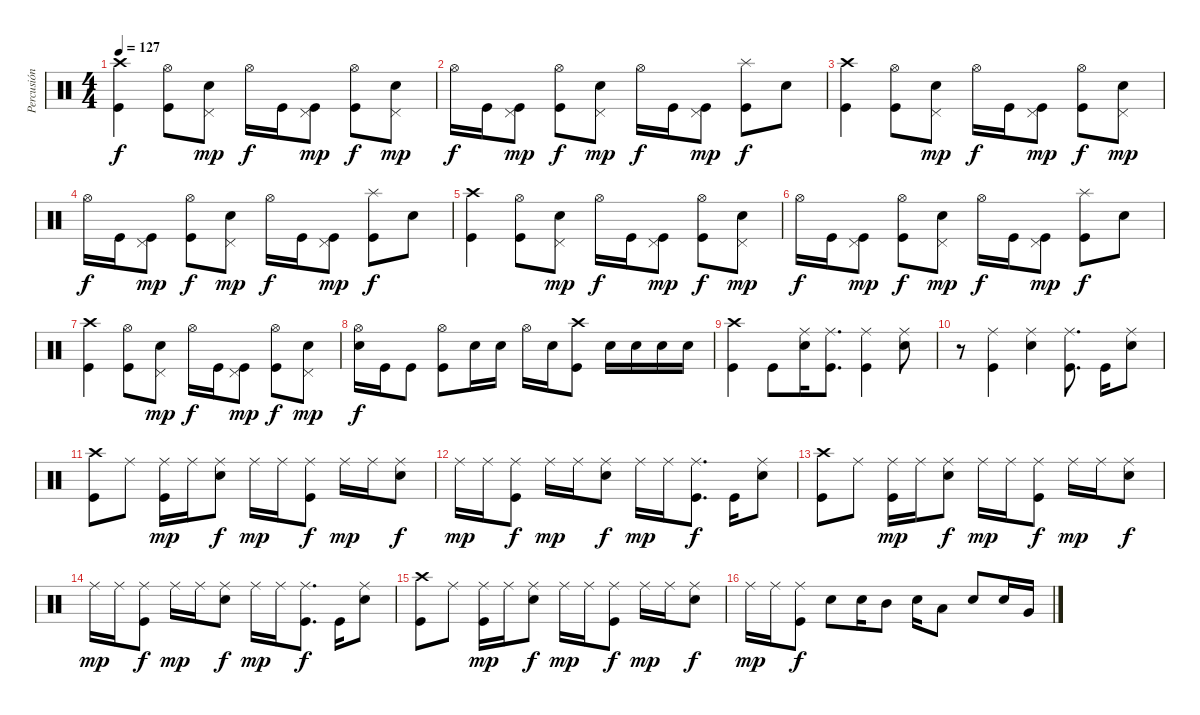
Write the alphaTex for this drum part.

\track ("Percusión" "Percusión") {instrument percussion}
\staff {score}
\articulation defaults
\ts (4 4)
\tempo 127
\clef neutral
\ks c
("Kick (hit)" "Crash high (hit)").4{dy f} ("Kick (hit)" "Hi-Hat (open)").8 ("Snare (hit) 2" "Pedal Hi-Hat (hit)").8{dy mp} "Hi-Hat (open)".16{dy f} "Kick (hit)".16 ("Kick (hit)" "Pedal Hi-Hat (hit)").8{dy mp} ("Kick (hit)" "Hi-Hat (open)").8{dy f} ("Snare (hit) 2" "Pedal Hi-Hat (hit)").8{dy mp} |
"Hi-Hat (open)".16{dy f} "Kick (hit)".16 ("Kick (hit)" "Pedal Hi-Hat (hit)").8{dy mp} ("Kick (hit)" "Hi-Hat (open)").8{dy f} ("Snare (hit) 2" "Pedal Hi-Hat (hit)").8{dy mp} "Hi-Hat (open)".16{dy f} "Kick (hit)".16 ("Kick (hit)" "Pedal Hi-Hat (hit)").8{dy mp} ("Kick (hit)" "Splash (hit)").8{dy f} "Snare (hit) 2".8 |
("Kick (hit)" "Crash high (hit)").4 ("Kick (hit)" "Hi-Hat (open)").8 ("Snare (hit) 2" "Pedal Hi-Hat (hit)").8{dy mp} "Hi-Hat (open)".16{dy f} "Kick (hit)".16 ("Kick (hit)" "Pedal Hi-Hat (hit)").8{dy mp} ("Kick (hit)" "Hi-Hat (open)").8{dy f} ("Snare (hit) 2" "Pedal Hi-Hat (hit)").8{dy mp} |
"Hi-Hat (open)".16{dy f} "Kick (hit)".16 ("Kick (hit)" "Pedal Hi-Hat (hit)").8{dy mp} ("Kick (hit)" "Hi-Hat (open)").8{dy f} ("Snare (hit) 2" "Pedal Hi-Hat (hit)").8{dy mp} "Hi-Hat (open)".16{dy f} "Kick (hit)".16 ("Kick (hit)" "Pedal Hi-Hat (hit)").8{dy mp} ("Kick (hit)" "Splash (hit)").8{dy f} "Snare (hit) 2".8 |
("Kick (hit)" "Crash high (hit)").4 ("Kick (hit)" "Hi-Hat (open)").8 ("Snare (hit) 2" "Pedal Hi-Hat (hit)").8{dy mp} "Hi-Hat (open)".16{dy f} "Kick (hit)".16 ("Kick (hit)" "Pedal Hi-Hat (hit)").8{dy mp} ("Kick (hit)" "Hi-Hat (open)").8{dy f} ("Snare (hit) 2" "Pedal Hi-Hat (hit)").8{dy mp} |
"Hi-Hat (open)".16{dy f} "Kick (hit)".16 ("Kick (hit)" "Pedal Hi-Hat (hit)").8{dy mp} ("Kick (hit)" "Hi-Hat (open)").8{dy f} ("Snare (hit) 2" "Pedal Hi-Hat (hit)").8{dy mp} "Hi-Hat (open)".16{dy f} "Kick (hit)".16 ("Kick (hit)" "Pedal Hi-Hat (hit)").8{dy mp} ("Kick (hit)" "Splash (hit)").8{dy f} "Snare (hit) 2".8 |
("Kick (hit)" "Crash high (hit)").4 ("Kick (hit)" "Hi-Hat (open)").8 ("Snare (hit) 2" "Pedal Hi-Hat (hit)").8{dy mp} "Hi-Hat (open)".16{dy f} "Kick (hit)".16 ("Kick (hit)" "Pedal Hi-Hat (hit)").8{dy mp} ("Kick (hit)" "Hi-Hat (open)").8{dy f} ("Snare (hit) 2" "Pedal Hi-Hat (hit)").8{dy mp} |
("Snare (hit) 2" "Hi-Hat (open)").16{dy f} "Kick (hit)".16 "Kick (hit)".8 ("Kick (hit)" "Hi-Hat (open)").8 "Snare (hit) 2".16 "Snare (hit) 2".16 "Hi-Hat (open)".16 "Snare (hit) 2".16 ("Kick (hit)" "Crash high (hit)").8 "Snare (hit) 2".16 "Snare (hit) 2".16 "Snare (hit) 2".16 "Snare (hit) 2".16 |
("Kick (hit)" "Crash high (hit)").4 "Kick (hit)".8 ("Snare (hit) 2" "Ride (middle)").16 ("Kick (hit)" "Ride (middle)").8{d} ("Kick (hit)" "Ride (middle)").4 ("Snare (hit) 2" "Ride (middle)").8 |
r.8 ("Kick (hit)" "Ride (middle)").4 ("Snare (hit) 2" "Ride (middle)").4 ("Kick (hit)" "Ride (middle)").8{d} "Kick (hit)".16 ("Snare (hit) 2" "Ride (middle)").8 |
("Kick (hit)" "Crash high (hit)").8 "Ride (middle)".8 ("Kick (hit)" "Ride (middle)").16{dy mp} "Ride (middle)".16 ("Snare (hit) 2" "Ride (middle)").8{dy f} "Ride (middle)".16{dy mp} "Ride (middle)".16 ("Kick (hit)" "Ride (middle)").8{dy f} "Ride (middle)".16{dy mp} "Ride (middle)".16 ("Snare (hit) 2" "Ride (middle)").8{dy f} |
"Ride (middle)".16{dy mp} "Ride (middle)".16 ("Kick (hit)" "Ride (middle)").8{dy f} "Ride (middle)".16{dy mp} "Ride (middle)".16 ("Snare (hit) 2" "Ride (middle)").8{dy f} "Ride (middle)".16{dy mp} "Ride (middle)".16 ("Kick (hit)" "Ride (middle)").8{d dy f} "Kick (hit)".16 ("Snare (hit) 2" "Ride (middle)").8 |
("Kick (hit)" "Crash high (hit)").8 "Ride (middle)".8 ("Kick (hit)" "Ride (middle)").16{dy mp} "Ride (middle)".16 ("Snare (hit) 2" "Ride (middle)").8{dy f} "Ride (middle)".16{dy mp} "Ride (middle)".16 ("Kick (hit)" "Ride (middle)").8{dy f} "Ride (middle)".16{dy mp} "Ride (middle)".16 ("Snare (hit) 2" "Ride (middle)").8{dy f} |
"Ride (middle)".16{dy mp} "Ride (middle)".16 ("Kick (hit)" "Ride (middle)").8{dy f} "Ride (middle)".16{dy mp} "Ride (middle)".16 ("Snare (hit) 2" "Ride (middle)").8{dy f} "Ride (middle)".16{dy mp} "Ride (middle)".16 ("Kick (hit)" "Ride (middle)").8{d dy f} "Kick (hit)".16 ("Snare (hit) 2" "Ride (middle)").8 |
("Kick (hit)" "Crash high (hit)").8 "Ride (middle)".8 ("Kick (hit)" "Ride (middle)").16{dy mp} "Ride (middle)".16 ("Snare (hit) 2" "Ride (middle)").8{dy f} "Ride (middle)".16{dy mp} "Ride (middle)".16 ("Kick (hit)" "Ride (middle)").8{dy f} "Ride (middle)".16{dy mp} "Ride (middle)".16 ("Snare (hit) 2" "Ride (middle)").8{dy f} |
"Ride (middle)".16{dy mp} "Ride (middle)".16 ("Kick (hit)" "Ride (middle)").8{dy f} "Snare (hit) 2".8 "Snare (hit) 2".16 "Mid Tom (hit)".8 "Snare (hit) 2".16 "Low Tom (hit)".8 "Snare (hit) 2".8 "Snare (hit) 2".16 "Very Low Tom (hit)".16
